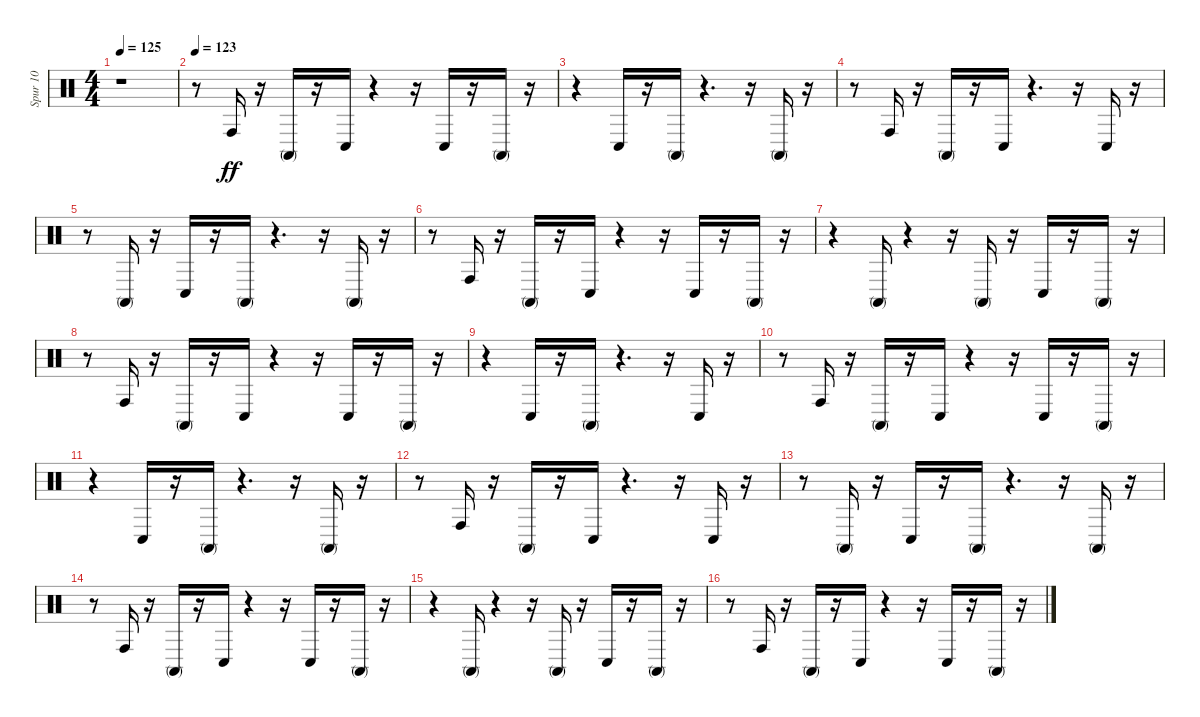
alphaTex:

\track ("Spur 10" "Spur 10") {instrument percussion}
\staff {score}
\articulation defaults
\ts (4 4)
\tempo 125
\clef neutral
\ks c
r.1{dy ff} |
\tempo 123
r.8 "Conga high (hit)".16 r.16 "Conga high (mute)".16 r.16 "Conga low (hit)".16 r.4 r.16 "Conga low (hit)".16 r.16 "Conga high (mute)".16 r.16 |
r.4 "Conga low (hit)".16 r.16 "Conga high (mute)".16 r.4{d} r.16 "Conga high (mute)".16 r.16 |
r.8 "Conga high (hit)".16 r.16 "Conga high (mute)".16 r.16 "Conga low (hit)".16 r.4{d} r.16 "Conga low (hit)".16 r.16 |
r.8 "Conga high (mute)".16 r.16 "Conga low (hit)".16 r.16 "Conga high (mute)".16 r.4{d} r.16 "Conga high (mute)".16 r.16 |
r.8 "Conga high (hit)".16 r.16 "Conga high (mute)".16 r.16 "Conga low (hit)".16 r.4 r.16 "Conga low (hit)".16 r.16 "Conga high (mute)".16 r.16 |
r.4 "Conga high (mute)".16 r.4 r.16 "Conga high (mute)".16 r.16 "Conga low (hit)".16 r.16 "Conga high (mute)".16 r.16 |
r.8 "Conga high (hit)".16 r.16 "Conga high (mute)".16 r.16 "Conga low (hit)".16 r.4 r.16 "Conga low (hit)".16 r.16 "Conga high (mute)".16 r.16 |
r.4 "Conga low (hit)".16 r.16 "Conga high (mute)".16 r.4{d} r.16 "Conga low (hit)".16 r.16 |
r.8 "Conga high (hit)".16 r.16 "Conga high (mute)".16 r.16 "Conga low (hit)".16 r.4 r.16 "Conga low (hit)".16 r.16 "Conga high (mute)".16 r.16 |
r.4 "Conga low (hit)".16 r.16 "Conga high (mute)".16 r.4{d} r.16 "Conga high (mute)".16 r.16 |
r.8 "Conga high (hit)".16 r.16 "Conga high (mute)".16 r.16 "Conga low (hit)".16 r.4{d} r.16 "Conga low (hit)".16 r.16 |
r.8 "Conga high (mute)".16 r.16 "Conga low (hit)".16 r.16 "Conga high (mute)".16 r.4{d} r.16 "Conga high (mute)".16 r.16 |
r.8 "Conga high (hit)".16 r.16 "Conga high (mute)".16 r.16 "Conga low (hit)".16 r.4 r.16 "Conga low (hit)".16 r.16 "Conga high (mute)".16 r.16 |
r.4 "Conga high (mute)".16 r.4 r.16 "Conga high (mute)".16 r.16 "Conga low (hit)".16 r.16 "Conga high (mute)".16 r.16 |
r.8 "Conga high (hit)".16 r.16 "Conga high (mute)".16 r.16 "Conga low (hit)".16 r.4 r.16 "Conga low (hit)".16 r.16 "Conga high (mute)".16 r.16
